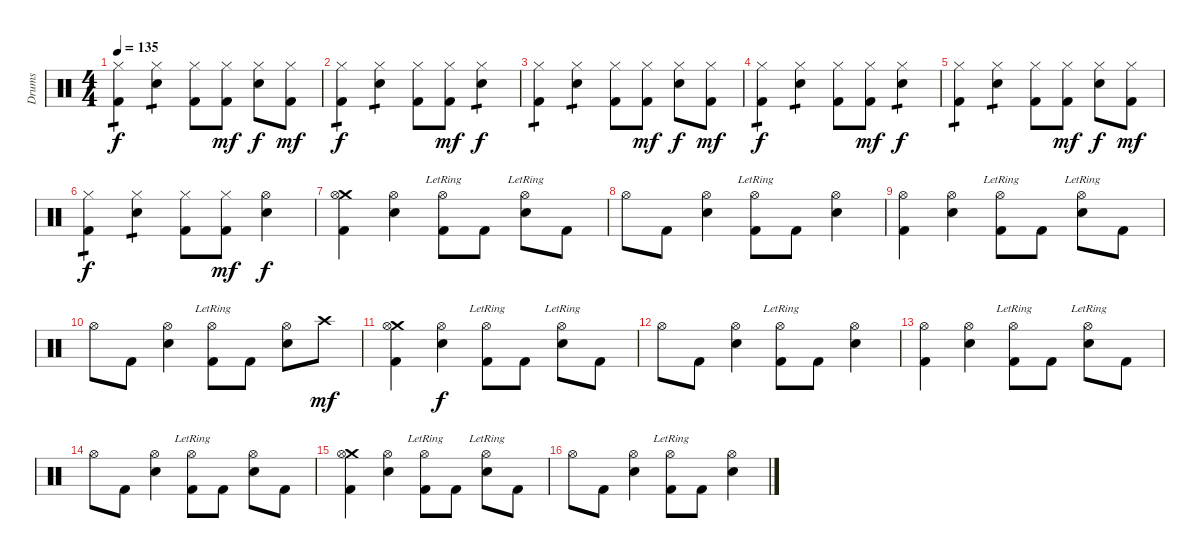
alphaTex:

\track ("Drums" "Drums") {instrument percussion}
\staff {score}
\articulation defaults
\ts (4 4)
\tempo 135
\clef neutral
\ks c
("Hi-Hat (closed)" "Kick (hit) 2").4{tp 1 dy f} ("Hi-Hat (closed)" "Electric Snare (hit)").4{tp 1} ("Hi-Hat (closed)" "Kick (hit) 2").8 ("Hi-Hat (closed)" "Kick (hit) 2").8{dy mf} ("Hi-Hat (closed)" "Electric Snare (hit)").8{dy f} ("Hi-Hat (closed)" "Kick (hit) 2").8{dy mf} |
("Hi-Hat (closed)" "Kick (hit) 2").4{tp 1 dy f} ("Hi-Hat (closed)" "Electric Snare (hit)").4{tp 1} ("Hi-Hat (closed)" "Kick (hit) 2").8 ("Hi-Hat (closed)" "Kick (hit) 2").8{dy mf} ("Hi-Hat (closed)" "Electric Snare (hit)").4{tp 1 dy f} |
("Hi-Hat (closed)" "Kick (hit) 2").4{tp 1} ("Hi-Hat (closed)" "Electric Snare (hit)").4{tp 1} ("Hi-Hat (closed)" "Kick (hit) 2").8 ("Hi-Hat (closed)" "Kick (hit) 2").8{dy mf} ("Hi-Hat (closed)" "Electric Snare (hit)").8{dy f} ("Hi-Hat (closed)" "Kick (hit) 2").8{dy mf} |
("Hi-Hat (closed)" "Kick (hit) 2").4{tp 1 dy f} ("Hi-Hat (closed)" "Electric Snare (hit)").4{tp 1} ("Hi-Hat (closed)" "Kick (hit) 2").8 ("Hi-Hat (closed)" "Kick (hit) 2").8{dy mf} ("Hi-Hat (closed)" "Electric Snare (hit)").4{tp 1 dy f} |
("Hi-Hat (closed)" "Kick (hit) 2").4{tp 1} ("Hi-Hat (closed)" "Electric Snare (hit)").4{tp 1} ("Hi-Hat (closed)" "Kick (hit) 2").8 ("Hi-Hat (closed)" "Kick (hit) 2").8{dy mf} ("Hi-Hat (closed)" "Electric Snare (hit)").8{dy f} ("Hi-Hat (closed)" "Kick (hit) 2").8{dy mf} |
("Hi-Hat (closed)" "Kick (hit) 2").4{tp 1 dy f} ("Hi-Hat (closed)" "Electric Snare (hit)").4{tp 1} ("Hi-Hat (closed)" "Kick (hit) 2").8 ("Hi-Hat (closed)" "Kick (hit) 2").8{dy mf} ("Hi-Hat (open)" "Electric Snare (hit)").4{dy f} |
("Crash medium (hit)" "Hi-Hat (open)" "Kick (hit) 2").4 ("Hi-Hat (open)" "Electric Snare (hit)").4 ("Hi-Hat (open)"{lr} "Kick (hit) 2").8 "Kick (hit) 2".8 ("Hi-Hat (open)"{lr} "Electric Snare (hit)").8 "Kick (hit) 2".8 |
"Hi-Hat (open)".8 "Kick (hit) 2".8 ("Hi-Hat (open)" "Electric Snare (hit)").4 ("Hi-Hat (open)"{lr} "Kick (hit) 2").8 "Kick (hit) 2".8 ("Hi-Hat (open)" "Electric Snare (hit)").4 |
("Hi-Hat (open)" "Kick (hit) 2").4 ("Hi-Hat (open)" "Electric Snare (hit)").4 ("Hi-Hat (open)"{lr} "Kick (hit) 2").8 "Kick (hit) 2".8 ("Hi-Hat (open)"{lr} "Electric Snare (hit)").8 "Kick (hit) 2".8 |
"Hi-Hat (open)".8 "Kick (hit) 2".8 ("Hi-Hat (open)" "Electric Snare (hit)").4 ("Hi-Hat (open)"{lr} "Kick (hit) 2").8 "Kick (hit) 2".8 ("Hi-Hat (open)" "Electric Snare (hit)").8 "Crash high (hit)".8{dy mf} |
("Crash medium (hit)" "Hi-Hat (open)" "Kick (hit) 2").4 ("Hi-Hat (open)" "Electric Snare (hit)").4{dy f} ("Hi-Hat (open)"{lr} "Kick (hit) 2").8 "Kick (hit) 2".8 ("Hi-Hat (open)"{lr} "Electric Snare (hit)").8 "Kick (hit) 2".8 |
"Hi-Hat (open)".8 "Kick (hit) 2".8 ("Hi-Hat (open)" "Electric Snare (hit)").4 ("Hi-Hat (open)"{lr} "Kick (hit) 2").8 "Kick (hit) 2".8 ("Hi-Hat (open)" "Electric Snare (hit)").4 |
("Hi-Hat (open)" "Kick (hit) 2").4 ("Hi-Hat (open)" "Electric Snare (hit)").4 ("Hi-Hat (open)"{lr} "Kick (hit) 2").8 "Kick (hit) 2".8 ("Hi-Hat (open)"{lr} "Electric Snare (hit)").8 "Kick (hit) 2".8 |
"Hi-Hat (open)".8 "Kick (hit) 2".8 ("Hi-Hat (open)" "Electric Snare (hit)").4 ("Hi-Hat (open)"{lr} "Kick (hit) 2").8 "Kick (hit) 2".8 ("Hi-Hat (open)" "Electric Snare (hit)").8 "Kick (hit) 2".8 |
("Crash medium (hit)" "Hi-Hat (open)" "Kick (hit) 2").4 ("Hi-Hat (open)" "Electric Snare (hit)").4 ("Hi-Hat (open)"{lr} "Kick (hit) 2").8 "Kick (hit) 2".8 ("Hi-Hat (open)"{lr} "Electric Snare (hit)").8 "Kick (hit) 2".8 |
"Hi-Hat (open)".8 "Kick (hit) 2".8 ("Hi-Hat (open)" "Electric Snare (hit)").4 ("Hi-Hat (open)"{lr} "Kick (hit) 2").8 "Kick (hit) 2".8 ("Hi-Hat (open)" "Electric Snare (hit)").4
